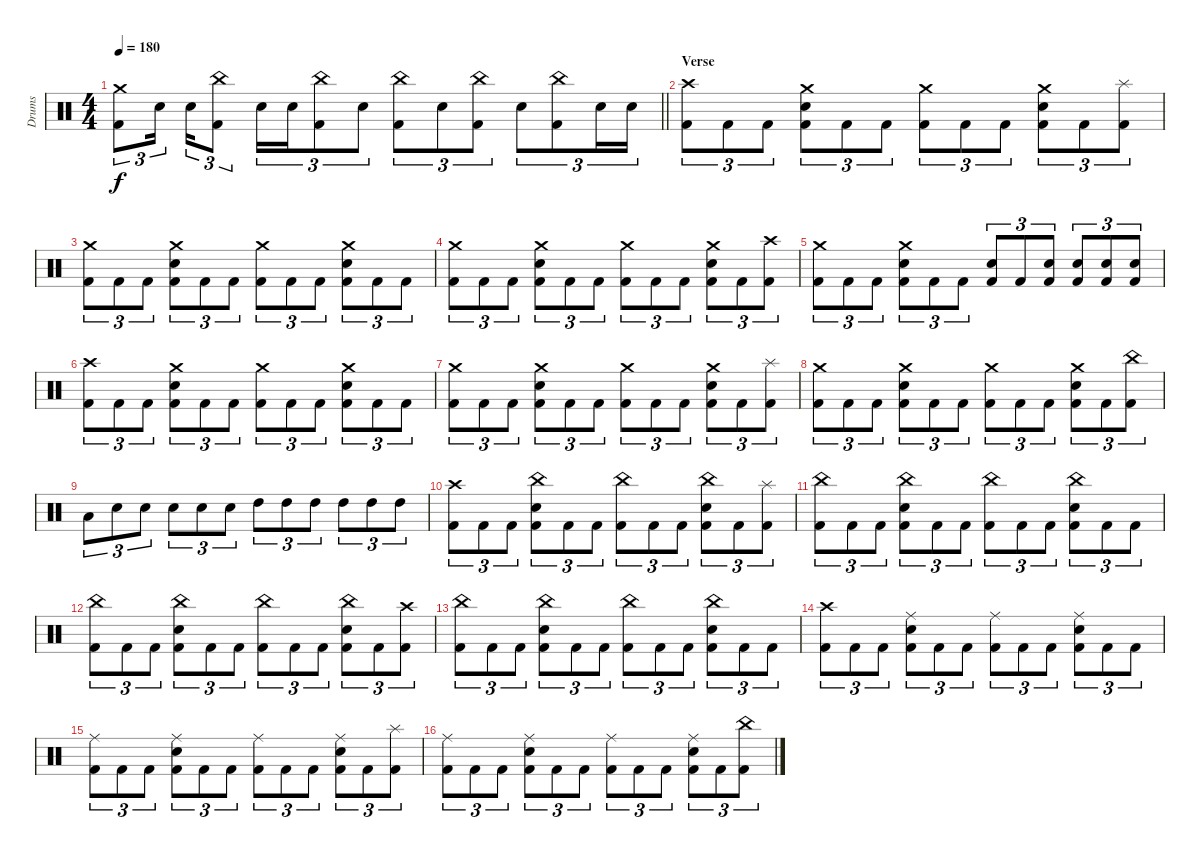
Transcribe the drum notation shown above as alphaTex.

\track ("Drums" "Drums") {instrument percussion}
\staff {score}
\articulation defaults
\ts (4 4)
\tempo 180
\clef neutral
\barLineRight lightlight
\ks c
("Crash medium (hit)" "Kick (hit) 2").8{tu (3 2) dy f} "Electric Snare (hit)".16{tu (3 2) beam splitsecondary} "Electric Snare (hit)".16{tu (3 2)} ("China (hit)" "Kick (hit) 2").8{tu (3 2)} "Electric Snare (hit)".16{tu (3 2)} "Electric Snare (hit)".16{tu (3 2)} ("China (hit)" "Kick (hit) 2").8{tu (3 2)} "Electric Snare (hit)".8{tu (3 2)} ("China (hit)" "Kick (hit) 2").8{tu (3 2)} "Electric Snare (hit)".8{tu (3 2)} ("China (hit)" "Kick (hit) 2").8{tu (3 2)} "Electric Snare (hit)".8{tu (3 2)} ("China (hit)" "Kick (hit) 2").8{tu (3 2)} "Electric Snare (hit)".16{tu (3 2)} "Electric Snare (hit)".16{tu (3 2)} |
\section ("" "Verse")
("Crash high (hit)" "Kick (hit) 2").8{tu (3 2)} "Kick (hit) 2".8{tu (3 2)} "Kick (hit) 2".8{tu (3 2)} ("Crash medium (hit)" "Electric Snare (hit)" "Kick (hit) 2").8{tu (3 2)} "Kick (hit) 2".8{tu (3 2)} "Kick (hit) 2".8{tu (3 2)} ("Crash medium (hit)" "Kick (hit) 2").8{tu (3 2)} "Kick (hit) 2".8{tu (3 2)} "Kick (hit) 2".8{tu (3 2)} ("Crash medium (hit)" "Electric Snare (hit)" "Kick (hit) 2").8{tu (3 2)} "Kick (hit) 2".8{tu (3 2)} ("Splash (hit)" "Kick (hit) 2").8{tu (3 2)} |
("Crash medium (hit)" "Kick (hit) 2").8{tu (3 2)} "Kick (hit) 2".8{tu (3 2)} "Kick (hit) 2".8{tu (3 2)} ("Crash medium (hit)" "Electric Snare (hit)" "Kick (hit) 2").8{tu (3 2)} "Kick (hit) 2".8{tu (3 2)} "Kick (hit) 2".8{tu (3 2)} ("Crash medium (hit)" "Kick (hit) 2").8{tu (3 2)} "Kick (hit) 2".8{tu (3 2)} "Kick (hit) 2".8{tu (3 2)} ("Crash medium (hit)" "Electric Snare (hit)" "Kick (hit) 2").8{tu (3 2)} "Kick (hit) 2".8{tu (3 2)} "Kick (hit) 2".8{tu (3 2)} |
("Crash medium (hit)" "Kick (hit) 2").8{tu (3 2)} "Kick (hit) 2".8{tu (3 2)} "Kick (hit) 2".8{tu (3 2)} ("Crash medium (hit)" "Electric Snare (hit)" "Kick (hit) 2").8{tu (3 2)} "Kick (hit) 2".8{tu (3 2)} "Kick (hit) 2".8{tu (3 2)} ("Crash medium (hit)" "Kick (hit) 2").8{tu (3 2)} "Kick (hit) 2".8{tu (3 2)} "Kick (hit) 2".8{tu (3 2)} ("Crash medium (hit)" "Electric Snare (hit)" "Kick (hit) 2").8{tu (3 2)} "Kick (hit) 2".8{tu (3 2)} ("Crash high (hit)" "Kick (hit) 2").8{tu (3 2)} |
("Crash medium (hit)" "Kick (hit) 2").8{tu (3 2)} "Kick (hit) 2".8{tu (3 2)} "Kick (hit) 2".8{tu (3 2)} ("Crash medium (hit)" "Electric Snare (hit)" "Kick (hit) 2").8{tu (3 2)} "Kick (hit) 2".8{tu (3 2)} "Kick (hit) 2".8{tu (3 2)} ("Electric Snare (hit)" "Kick (hit) 2").8{tu (3 2)} "Kick (hit) 2".8{tu (3 2)} ("Electric Snare (hit)" "Kick (hit) 2").8{tu (3 2)} ("Electric Snare (hit)" "Kick (hit) 2").8{tu (3 2)} ("Electric Snare (hit)" "Kick (hit) 2").8{tu (3 2)} ("Electric Snare (hit)" "Kick (hit) 2").8{tu (3 2)} |
("Crash high (hit)" "Kick (hit) 2").8{tu (3 2)} "Kick (hit) 2".8{tu (3 2)} "Kick (hit) 2".8{tu (3 2)} ("Crash medium (hit)" "Electric Snare (hit)" "Kick (hit) 2").8{tu (3 2)} "Kick (hit) 2".8{tu (3 2)} "Kick (hit) 2".8{tu (3 2)} ("Crash medium (hit)" "Kick (hit) 2").8{tu (3 2)} "Kick (hit) 2".8{tu (3 2)} "Kick (hit) 2".8{tu (3 2)} ("Crash medium (hit)" "Electric Snare (hit)" "Kick (hit) 2").8{tu (3 2)} "Kick (hit) 2".8{tu (3 2)} "Kick (hit) 2".8{tu (3 2)} |
("Crash medium (hit)" "Kick (hit) 2").8{tu (3 2)} "Kick (hit) 2".8{tu (3 2)} "Kick (hit) 2".8{tu (3 2)} ("Crash medium (hit)" "Electric Snare (hit)" "Kick (hit) 2").8{tu (3 2)} "Kick (hit) 2".8{tu (3 2)} "Kick (hit) 2".8{tu (3 2)} ("Crash medium (hit)" "Kick (hit) 2").8{tu (3 2)} "Kick (hit) 2".8{tu (3 2)} "Kick (hit) 2".8{tu (3 2)} ("Crash medium (hit)" "Electric Snare (hit)" "Kick (hit) 2").8{tu (3 2)} "Kick (hit) 2".8{tu (3 2)} ("Splash (hit)" "Kick (hit) 2").8{tu (3 2)} |
("Crash medium (hit)" "Kick (hit) 2").8{tu (3 2)} "Kick (hit) 2".8{tu (3 2)} "Kick (hit) 2".8{tu (3 2)} ("Crash medium (hit)" "Electric Snare (hit)" "Kick (hit) 2").8{tu (3 2)} "Kick (hit) 2".8{tu (3 2)} "Kick (hit) 2".8{tu (3 2)} ("Crash medium (hit)" "Kick (hit) 2").8{tu (3 2)} "Kick (hit) 2".8{tu (3 2)} "Kick (hit) 2".8{tu (3 2)} ("Crash medium (hit)" "Electric Snare (hit)" "Kick (hit) 2").8{tu (3 2)} "Kick (hit) 2".8{tu (3 2)} ("China (hit)" "Kick (hit) 2").8{tu (3 2)} |
"Low Tom (hit)".8{tu (3 2)} "Electric Snare (hit)".8{tu (3 2)} "Electric Snare (hit)".8{tu (3 2)} "Electric Snare (hit)".8{tu (3 2)} "Electric Snare (hit)".8{tu (3 2)} "Electric Snare (hit)".8{tu (3 2)} "High Tom (hit)".8{tu (3 2)} "High Tom (hit)".8{tu (3 2)} "High Tom (hit)".8{tu (3 2)} "High Tom (hit)".8{tu (3 2)} "High Tom (hit)".8{tu (3 2)} "High Tom (hit)".8{tu (3 2)} |
("Crash high (hit)" "Kick (hit) 2").8{tu (3 2)} "Kick (hit) 2".8{tu (3 2)} "Kick (hit) 2".8{tu (3 2)} ("China (hit)" "Electric Snare (hit)" "Kick (hit) 2").8{tu (3 2)} "Kick (hit) 2".8{tu (3 2)} "Kick (hit) 2".8{tu (3 2)} ("China (hit)" "Kick (hit) 2").8{tu (3 2)} "Kick (hit) 2".8{tu (3 2)} "Kick (hit) 2".8{tu (3 2)} ("China (hit)" "Electric Snare (hit)" "Kick (hit) 2").8{tu (3 2)} "Kick (hit) 2".8{tu (3 2)} ("Splash (hit)" "Kick (hit) 2").8{tu (3 2)} |
("China (hit)" "Kick (hit) 2").8{tu (3 2)} "Kick (hit) 2".8{tu (3 2)} "Kick (hit) 2".8{tu (3 2)} ("China (hit)" "Electric Snare (hit)" "Kick (hit) 2").8{tu (3 2)} "Kick (hit) 2".8{tu (3 2)} "Kick (hit) 2".8{tu (3 2)} ("China (hit)" "Kick (hit) 2").8{tu (3 2)} "Kick (hit) 2".8{tu (3 2)} "Kick (hit) 2".8{tu (3 2)} ("China (hit)" "Electric Snare (hit)" "Kick (hit) 2").8{tu (3 2)} "Kick (hit) 2".8{tu (3 2)} "Kick (hit) 2".8{tu (3 2)} |
("China (hit)" "Kick (hit) 2").8{tu (3 2)} "Kick (hit) 2".8{tu (3 2)} "Kick (hit) 2".8{tu (3 2)} ("China (hit)" "Electric Snare (hit)" "Kick (hit) 2").8{tu (3 2)} "Kick (hit) 2".8{tu (3 2)} "Kick (hit) 2".8{tu (3 2)} ("China (hit)" "Kick (hit) 2").8{tu (3 2)} "Kick (hit) 2".8{tu (3 2)} "Kick (hit) 2".8{tu (3 2)} ("China (hit)" "Electric Snare (hit)" "Kick (hit) 2").8{tu (3 2)} "Kick (hit) 2".8{tu (3 2)} ("Crash high (hit)" "Kick (hit) 2").8{tu (3 2)} |
("China (hit)" "Kick (hit) 2").8{tu (3 2)} "Kick (hit) 2".8{tu (3 2)} "Kick (hit) 2".8{tu (3 2)} ("China (hit)" "Electric Snare (hit)" "Kick (hit) 2").8{tu (3 2)} "Kick (hit) 2".8{tu (3 2)} "Kick (hit) 2".8{tu (3 2)} ("China (hit)" "Kick (hit) 2").8{tu (3 2)} "Kick (hit) 2".8{tu (3 2)} "Kick (hit) 2".8{tu (3 2)} ("China (hit)" "Electric Snare (hit)" "Kick (hit) 2").8{tu (3 2)} "Kick (hit) 2".8{tu (3 2)} "Kick (hit) 2".8{tu (3 2)} |
("Crash high (hit)" "Kick (hit) 2").8{tu (3 2)} "Kick (hit) 2".8{tu (3 2)} "Kick (hit) 2".8{tu (3 2)} ("Ride (middle)" "Electric Snare (hit)" "Kick (hit) 2").8{tu (3 2)} "Kick (hit) 2".8{tu (3 2)} "Kick (hit) 2".8{tu (3 2)} ("Ride (middle)" "Kick (hit) 2").8{tu (3 2)} "Kick (hit) 2".8{tu (3 2)} "Kick (hit) 2".8{tu (3 2)} ("Ride (middle)" "Electric Snare (hit)" "Kick (hit) 2").8{tu (3 2)} "Kick (hit) 2".8{tu (3 2)} "Kick (hit) 2".8{tu (3 2)} |
("Ride (middle)" "Kick (hit) 2").8{tu (3 2)} "Kick (hit) 2".8{tu (3 2)} "Kick (hit) 2".8{tu (3 2)} ("Ride (middle)" "Electric Snare (hit)" "Kick (hit) 2").8{tu (3 2)} "Kick (hit) 2".8{tu (3 2)} "Kick (hit) 2".8{tu (3 2)} ("Ride (middle)" "Kick (hit) 2").8{tu (3 2)} "Kick (hit) 2".8{tu (3 2)} "Kick (hit) 2".8{tu (3 2)} ("Ride (middle)" "Electric Snare (hit)" "Kick (hit) 2").8{tu (3 2)} "Kick (hit) 2".8{tu (3 2)} ("Splash (hit)" "Kick (hit) 2").8{tu (3 2)} |
("Ride (middle)" "Kick (hit) 2").8{tu (3 2)} "Kick (hit) 2".8{tu (3 2)} "Kick (hit) 2".8{tu (3 2)} ("Ride (middle)" "Electric Snare (hit)" "Kick (hit) 2").8{tu (3 2)} "Kick (hit) 2".8{tu (3 2)} "Kick (hit) 2".8{tu (3 2)} ("Ride (middle)" "Kick (hit) 2").8{tu (3 2)} "Kick (hit) 2".8{tu (3 2)} "Kick (hit) 2".8{tu (3 2)} ("Ride (middle)" "Electric Snare (hit)" "Kick (hit) 2").8{tu (3 2)} "Kick (hit) 2".8{tu (3 2)} ("China (hit)" "Kick (hit) 2").8{tu (3 2)}
